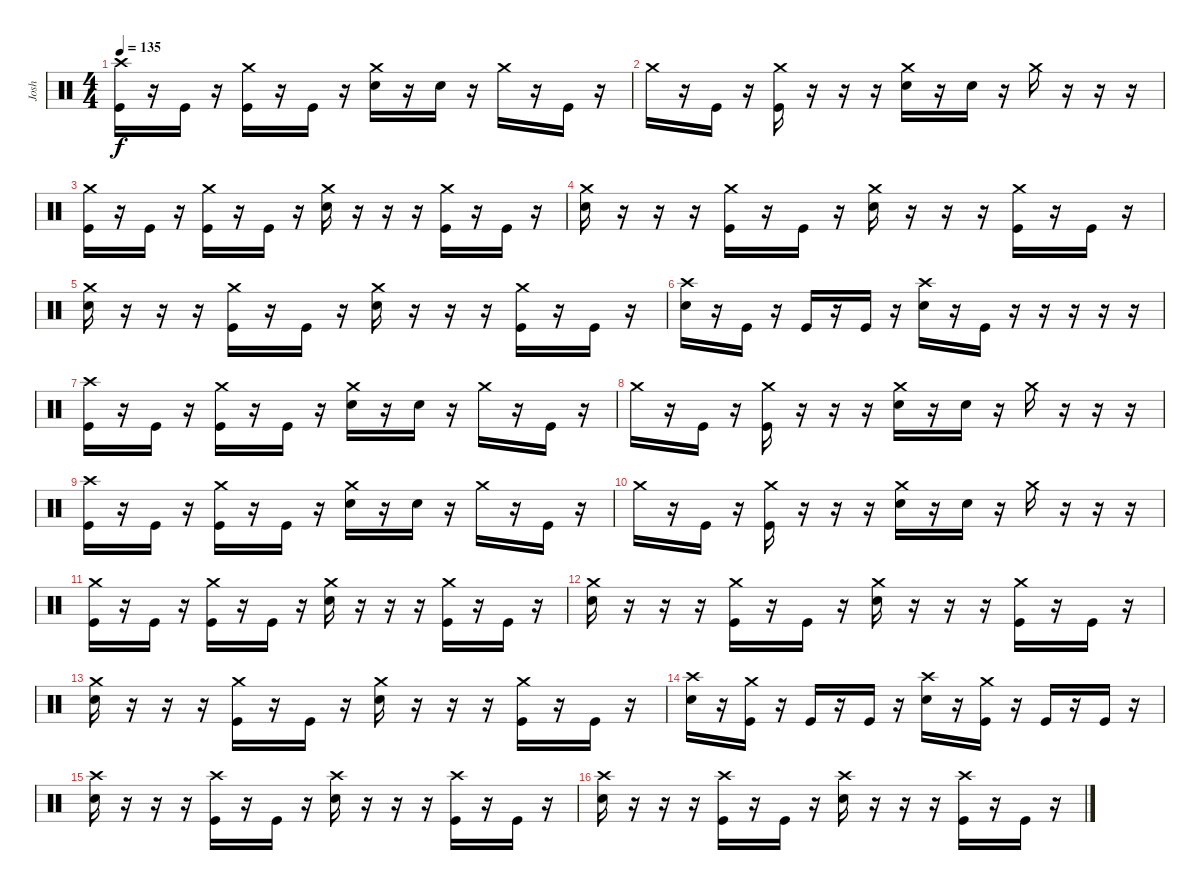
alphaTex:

\track ("Josh" "Josh") {instrument percussion}
\staff {score}
\articulation defaults
\ts (4 4)
\tempo 135
\clef neutral
\ks c
("Crash high (hit)" "Kick (hit)").16{dy f} r.16 "Kick (hit)".16 r.16 ("Crash medium (hit)" "Kick (hit)").16 r.16 "Kick (hit)".16 r.16 ("Crash medium (hit)" "Snare (hit) 2").16 r.16 "Snare (hit) 2".16 r.16 "Crash medium (hit)".16 r.16 "Kick (hit)".16 r.16 |
"Crash medium (hit)".16 r.16 "Kick (hit)".16 r.16 ("Crash medium (hit)" "Kick (hit)").16 r.16 r.16 r.16 ("Crash medium (hit)" "Snare (hit) 2").16 r.16 "Snare (hit) 2".16 r.16 "Crash medium (hit)".16 r.16 r.16 r.16 |
("Crash medium (hit)" "Kick (hit)").16 r.16 "Kick (hit)".16 r.16 ("Crash medium (hit)" "Kick (hit)").16 r.16 "Kick (hit)".16 r.16 ("Crash medium (hit)" "Snare (hit) 2").16 r.16 r.16 r.16 ("Crash medium (hit)" "Kick (hit)").16 r.16 "Kick (hit)".16 r.16 |
("Crash medium (hit)" "Snare (hit) 2").16 r.16 r.16 r.16 ("Crash medium (hit)" "Kick (hit)").16 r.16 "Kick (hit)".16 r.16 ("Crash medium (hit)" "Snare (hit) 2").16 r.16 r.16 r.16 ("Crash medium (hit)" "Kick (hit)").16 r.16 "Kick (hit)".16 r.16 |
("Crash medium (hit)" "Snare (hit) 2").16 r.16 r.16 r.16 ("Crash medium (hit)" "Kick (hit)").16 r.16 "Kick (hit)".16 r.16 ("Crash medium (hit)" "Snare (hit) 2").16 r.16 r.16 r.16 ("Crash medium (hit)" "Kick (hit)").16 r.16 "Kick (hit)".16 r.16 |
("Crash high (hit)" "Snare (hit) 2").16 r.16 "Kick (hit)".16 r.16 "Kick (hit)".16 r.16 "Kick (hit)".16 r.16 ("Crash high (hit)" "Snare (hit) 2").16 r.16 "Kick (hit)".16 r.16 r.16 r.16 r.16 r.16 |
("Crash high (hit)" "Kick (hit)").16 r.16 "Kick (hit)".16 r.16 ("Crash medium (hit)" "Kick (hit)").16 r.16 "Kick (hit)".16 r.16 ("Crash medium (hit)" "Snare (hit) 2").16 r.16 "Snare (hit) 2".16 r.16 "Crash medium (hit)".16 r.16 "Kick (hit)".16 r.16 |
"Crash medium (hit)".16 r.16 "Kick (hit)".16 r.16 ("Crash medium (hit)" "Kick (hit)").16 r.16 r.16 r.16 ("Crash medium (hit)" "Snare (hit) 2").16 r.16 "Snare (hit) 2".16 r.16 "Crash medium (hit)".16 r.16 r.16 r.16 |
("Crash high (hit)" "Kick (hit)").16 r.16 "Kick (hit)".16 r.16 ("Crash medium (hit)" "Kick (hit)").16 r.16 "Kick (hit)".16 r.16 ("Crash medium (hit)" "Snare (hit) 2").16 r.16 "Snare (hit) 2".16 r.16 "Crash medium (hit)".16 r.16 "Kick (hit)".16 r.16 |
"Crash medium (hit)".16 r.16 "Kick (hit)".16 r.16 ("Crash medium (hit)" "Kick (hit)").16 r.16 r.16 r.16 ("Crash medium (hit)" "Snare (hit) 2").16 r.16 "Snare (hit) 2".16 r.16 "Crash medium (hit)".16 r.16 r.16 r.16 |
("Crash medium (hit)" "Kick (hit)").16 r.16 "Kick (hit)".16 r.16 ("Crash medium (hit)" "Kick (hit)").16 r.16 "Kick (hit)".16 r.16 ("Crash medium (hit)" "Snare (hit) 2").16 r.16 r.16 r.16 ("Crash medium (hit)" "Kick (hit)").16 r.16 "Kick (hit)".16 r.16 |
("Crash medium (hit)" "Snare (hit) 2").16 r.16 r.16 r.16 ("Crash medium (hit)" "Kick (hit)").16 r.16 "Kick (hit)".16 r.16 ("Crash medium (hit)" "Snare (hit) 2").16 r.16 r.16 r.16 ("Crash medium (hit)" "Kick (hit)").16 r.16 "Kick (hit)".16 r.16 |
("Crash medium (hit)" "Snare (hit) 2").16 r.16 r.16 r.16 ("Crash medium (hit)" "Kick (hit)").16 r.16 "Kick (hit)".16 r.16 ("Crash medium (hit)" "Snare (hit) 2").16 r.16 r.16 r.16 ("Crash medium (hit)" "Kick (hit)").16 r.16 "Kick (hit)".16 r.16 |
("Crash high (hit)" "Snare (hit) 2").16 r.16 ("Crash medium (hit)" "Kick (hit)").16 r.16 "Kick (hit)".16 r.16 "Kick (hit)".16 r.16 ("Crash high (hit)" "Snare (hit) 2").16 r.16 ("Crash medium (hit)" "Kick (hit)").16 r.16 "Kick (hit)".16 r.16 "Kick (hit)".16 r.16 |
("Crash high (hit)" "Snare (hit) 2").16 r.16 r.16 r.16 ("Crash high (hit)" "Kick (hit)").16 r.16 "Kick (hit)".16 r.16 ("Crash high (hit)" "Snare (hit) 2").16 r.16 r.16 r.16 ("Crash high (hit)" "Kick (hit)").16 r.16 "Kick (hit)".16 r.16 |
("Crash high (hit)" "Snare (hit) 2").16 r.16 r.16 r.16 ("Crash high (hit)" "Kick (hit)").16 r.16 "Kick (hit)".16 r.16 ("Crash high (hit)" "Snare (hit) 2").16 r.16 r.16 r.16 ("Crash high (hit)" "Kick (hit)").16 r.16 "Kick (hit)".16 r.16
